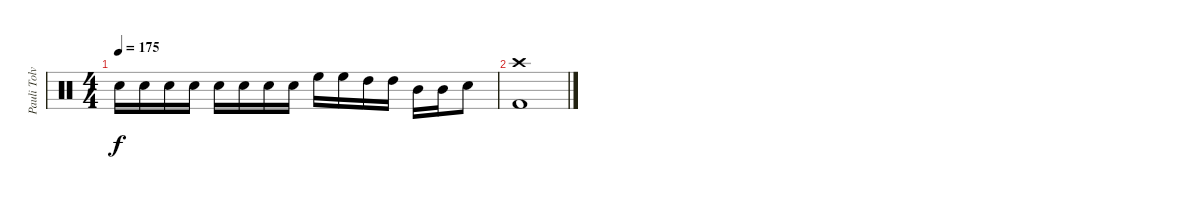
\track ("Pauli Tolvanen-Drums" "Pauli Tolv") {instrument percussion}
\staff {score}
\articulation defaults
\ts (4 4)
\tempo 175
\clef neutral
\ks c "Snare (hit) 2".16{dy f} "Snare (hit) 2".16 "Snare (hit) 2".16 "Snare (hit) 2".16 "Snare (hit) 2".16 "Snare (hit) 2".16 "Snare (hit) 2".16 "Snare (hit) 2".16 "High Floor Tom (hit)".16 "High Floor Tom (hit)".16 "High Tom (hit)".16 "High Tom (hit)".16 "Mid Tom (hit)".16 "Mid Tom (hit)".16 "Snare (hit) 2".8
|
("Crash high (hit)" "Kick (hit) 2").1
